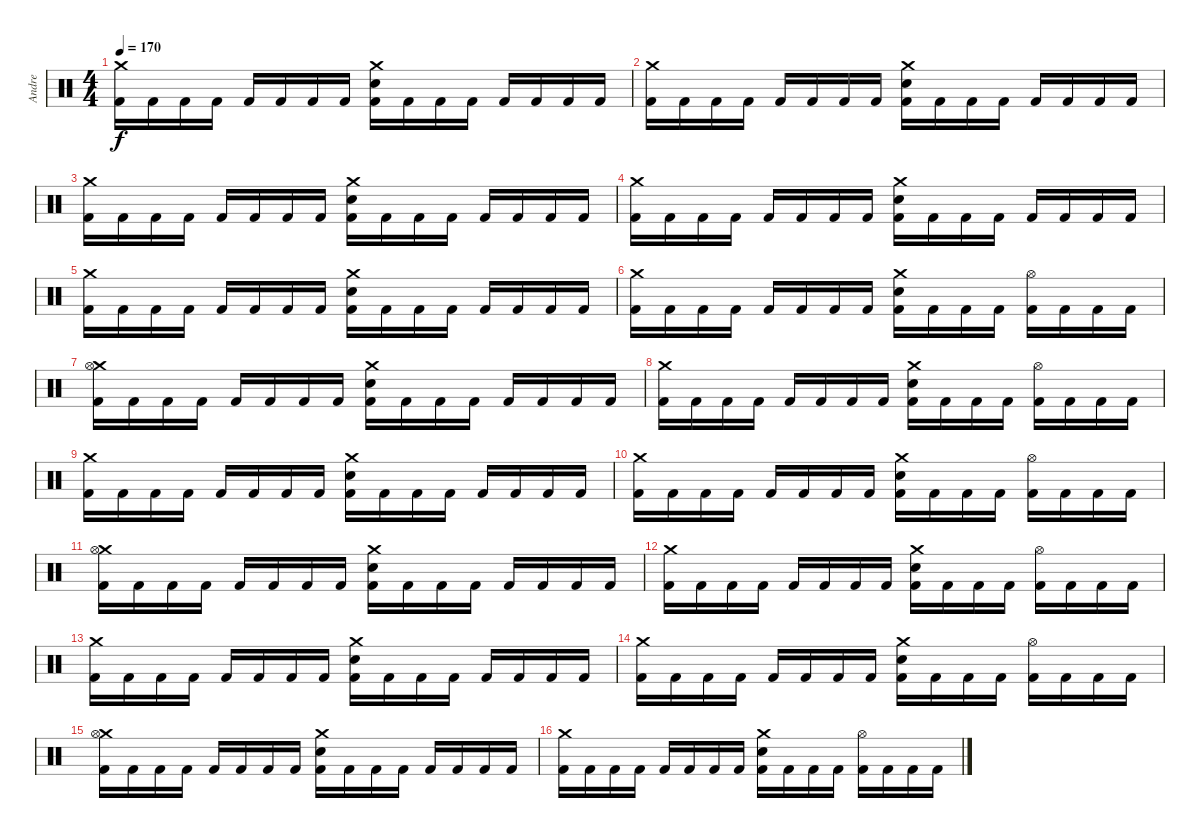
\track ("Andre" "Andre") {instrument percussion}
\staff {score}
\articulation defaults
\ts (4 4)
\tempo 170
\clef neutral
\ks c
("Crash medium (hit)" "Kick (hit) 2").16{dy f} "Kick (hit) 2".16 "Kick (hit) 2".16 "Kick (hit) 2".16 "Kick (hit) 2".16 "Kick (hit) 2".16 "Kick (hit) 2".16 "Kick (hit) 2".16 ("Crash medium (hit)" "Snare (hit) 2" "Kick (hit) 2").16 "Kick (hit) 2".16 "Kick (hit) 2".16 "Kick (hit) 2".16 "Kick (hit) 2".16 "Kick (hit) 2".16 "Kick (hit) 2".16 "Kick (hit) 2".16 |
("Crash medium (hit)" "Kick (hit) 2").16 "Kick (hit) 2".16 "Kick (hit) 2".16 "Kick (hit) 2".16 "Kick (hit) 2".16 "Kick (hit) 2".16 "Kick (hit) 2".16 "Kick (hit) 2".16 ("Crash medium (hit)" "Snare (hit) 2" "Kick (hit) 2").16 "Kick (hit) 2".16 "Kick (hit) 2".16 "Kick (hit) 2".16 "Kick (hit) 2".16 "Kick (hit) 2".16 "Kick (hit) 2".16 "Kick (hit) 2".16 |
("Crash medium (hit)" "Kick (hit) 2").16 "Kick (hit) 2".16 "Kick (hit) 2".16 "Kick (hit) 2".16 "Kick (hit) 2".16 "Kick (hit) 2".16 "Kick (hit) 2".16 "Kick (hit) 2".16 ("Crash medium (hit)" "Snare (hit) 2" "Kick (hit) 2").16 "Kick (hit) 2".16 "Kick (hit) 2".16 "Kick (hit) 2".16 "Kick (hit) 2".16 "Kick (hit) 2".16 "Kick (hit) 2".16 "Kick (hit) 2".16 |
("Crash medium (hit)" "Kick (hit) 2").16 "Kick (hit) 2".16 "Kick (hit) 2".16 "Kick (hit) 2".16 "Kick (hit) 2".16 "Kick (hit) 2".16 "Kick (hit) 2".16 "Kick (hit) 2".16 ("Crash medium (hit)" "Snare (hit) 2" "Kick (hit) 2").16 "Kick (hit) 2".16 "Kick (hit) 2".16 "Kick (hit) 2".16 "Kick (hit) 2".16 "Kick (hit) 2".16 "Kick (hit) 2".16 "Kick (hit) 2".16 |
("Crash medium (hit)" "Kick (hit) 2").16 "Kick (hit) 2".16 "Kick (hit) 2".16 "Kick (hit) 2".16 "Kick (hit) 2".16 "Kick (hit) 2".16 "Kick (hit) 2".16 "Kick (hit) 2".16 ("Crash medium (hit)" "Snare (hit) 2" "Kick (hit) 2").16 "Kick (hit) 2".16 "Kick (hit) 2".16 "Kick (hit) 2".16 "Kick (hit) 2".16 "Kick (hit) 2".16 "Kick (hit) 2".16 "Kick (hit) 2".16 |
("Crash medium (hit)" "Kick (hit) 2").16 "Kick (hit) 2".16 "Kick (hit) 2".16 "Kick (hit) 2".16 "Kick (hit) 2".16 "Kick (hit) 2".16 "Kick (hit) 2".16 "Kick (hit) 2".16 ("Crash medium (hit)" "Snare (hit) 2" "Kick (hit) 2").16 "Kick (hit) 2".16 "Kick (hit) 2".16 "Kick (hit) 2".16 ("Hi-Hat (open)" "Kick (hit) 2").16 "Kick (hit) 2".16 "Kick (hit) 2".16 "Kick (hit) 2".16 |
("Crash medium (hit)" "Hi-Hat (open)" "Kick (hit) 2").16 "Kick (hit) 2".16 "Kick (hit) 2".16 "Kick (hit) 2".16 "Kick (hit) 2".16 "Kick (hit) 2".16 "Kick (hit) 2".16 "Kick (hit) 2".16 ("Crash medium (hit)" "Snare (hit) 2" "Kick (hit) 2").16 "Kick (hit) 2".16 "Kick (hit) 2".16 "Kick (hit) 2".16 "Kick (hit) 2".16 "Kick (hit) 2".16 "Kick (hit) 2".16 "Kick (hit) 2".16 |
("Crash medium (hit)" "Kick (hit) 2").16 "Kick (hit) 2".16 "Kick (hit) 2".16 "Kick (hit) 2".16 "Kick (hit) 2".16 "Kick (hit) 2".16 "Kick (hit) 2".16 "Kick (hit) 2".16 ("Crash medium (hit)" "Snare (hit) 2" "Kick (hit) 2").16 "Kick (hit) 2".16 "Kick (hit) 2".16 "Kick (hit) 2".16 ("Hi-Hat (open)" "Kick (hit) 2").16 "Kick (hit) 2".16 "Kick (hit) 2".16 "Kick (hit) 2".16 |
("Crash medium (hit)" "Kick (hit) 2").16 "Kick (hit) 2".16 "Kick (hit) 2".16 "Kick (hit) 2".16 "Kick (hit) 2".16 "Kick (hit) 2".16 "Kick (hit) 2".16 "Kick (hit) 2".16 ("Crash medium (hit)" "Snare (hit) 2" "Kick (hit) 2").16 "Kick (hit) 2".16 "Kick (hit) 2".16 "Kick (hit) 2".16 "Kick (hit) 2".16 "Kick (hit) 2".16 "Kick (hit) 2".16 "Kick (hit) 2".16 |
("Crash medium (hit)" "Kick (hit) 2").16 "Kick (hit) 2".16 "Kick (hit) 2".16 "Kick (hit) 2".16 "Kick (hit) 2".16 "Kick (hit) 2".16 "Kick (hit) 2".16 "Kick (hit) 2".16 ("Crash medium (hit)" "Snare (hit) 2" "Kick (hit) 2").16 "Kick (hit) 2".16 "Kick (hit) 2".16 "Kick (hit) 2".16 ("Hi-Hat (open)" "Kick (hit) 2").16 "Kick (hit) 2".16 "Kick (hit) 2".16 "Kick (hit) 2".16 |
("Crash medium (hit)" "Hi-Hat (open)" "Kick (hit) 2").16 "Kick (hit) 2".16 "Kick (hit) 2".16 "Kick (hit) 2".16 "Kick (hit) 2".16 "Kick (hit) 2".16 "Kick (hit) 2".16 "Kick (hit) 2".16 ("Crash medium (hit)" "Snare (hit) 2" "Kick (hit) 2").16 "Kick (hit) 2".16 "Kick (hit) 2".16 "Kick (hit) 2".16 "Kick (hit) 2".16 "Kick (hit) 2".16 "Kick (hit) 2".16 "Kick (hit) 2".16 |
("Crash medium (hit)" "Kick (hit) 2").16 "Kick (hit) 2".16 "Kick (hit) 2".16 "Kick (hit) 2".16 "Kick (hit) 2".16 "Kick (hit) 2".16 "Kick (hit) 2".16 "Kick (hit) 2".16 ("Crash medium (hit)" "Snare (hit) 2" "Kick (hit) 2").16 "Kick (hit) 2".16 "Kick (hit) 2".16 "Kick (hit) 2".16 ("Hi-Hat (open)" "Kick (hit) 2").16 "Kick (hit) 2".16 "Kick (hit) 2".16 "Kick (hit) 2".16 |
("Crash medium (hit)" "Kick (hit) 2").16 "Kick (hit) 2".16 "Kick (hit) 2".16 "Kick (hit) 2".16 "Kick (hit) 2".16 "Kick (hit) 2".16 "Kick (hit) 2".16 "Kick (hit) 2".16 ("Crash medium (hit)" "Snare (hit) 2" "Kick (hit) 2").16 "Kick (hit) 2".16 "Kick (hit) 2".16 "Kick (hit) 2".16 "Kick (hit) 2".16 "Kick (hit) 2".16 "Kick (hit) 2".16 "Kick (hit) 2".16 |
("Crash medium (hit)" "Kick (hit) 2").16 "Kick (hit) 2".16 "Kick (hit) 2".16 "Kick (hit) 2".16 "Kick (hit) 2".16 "Kick (hit) 2".16 "Kick (hit) 2".16 "Kick (hit) 2".16 ("Crash medium (hit)" "Snare (hit) 2" "Kick (hit) 2").16 "Kick (hit) 2".16 "Kick (hit) 2".16 "Kick (hit) 2".16 ("Hi-Hat (open)" "Kick (hit) 2").16 "Kick (hit) 2".16 "Kick (hit) 2".16 "Kick (hit) 2".16 |
("Crash medium (hit)" "Hi-Hat (open)" "Kick (hit) 2").16 "Kick (hit) 2".16 "Kick (hit) 2".16 "Kick (hit) 2".16 "Kick (hit) 2".16 "Kick (hit) 2".16 "Kick (hit) 2".16 "Kick (hit) 2".16 ("Crash medium (hit)" "Snare (hit) 2" "Kick (hit) 2").16 "Kick (hit) 2".16 "Kick (hit) 2".16 "Kick (hit) 2".16 "Kick (hit) 2".16 "Kick (hit) 2".16 "Kick (hit) 2".16 "Kick (hit) 2".16 |
("Crash medium (hit)" "Kick (hit) 2").16 "Kick (hit) 2".16 "Kick (hit) 2".16 "Kick (hit) 2".16 "Kick (hit) 2".16 "Kick (hit) 2".16 "Kick (hit) 2".16 "Kick (hit) 2".16 ("Crash medium (hit)" "Snare (hit) 2" "Kick (hit) 2").16 "Kick (hit) 2".16 "Kick (hit) 2".16 "Kick (hit) 2".16 ("Hi-Hat (open)" "Kick (hit) 2").16 "Kick (hit) 2".16 "Kick (hit) 2".16 "Kick (hit) 2".16
